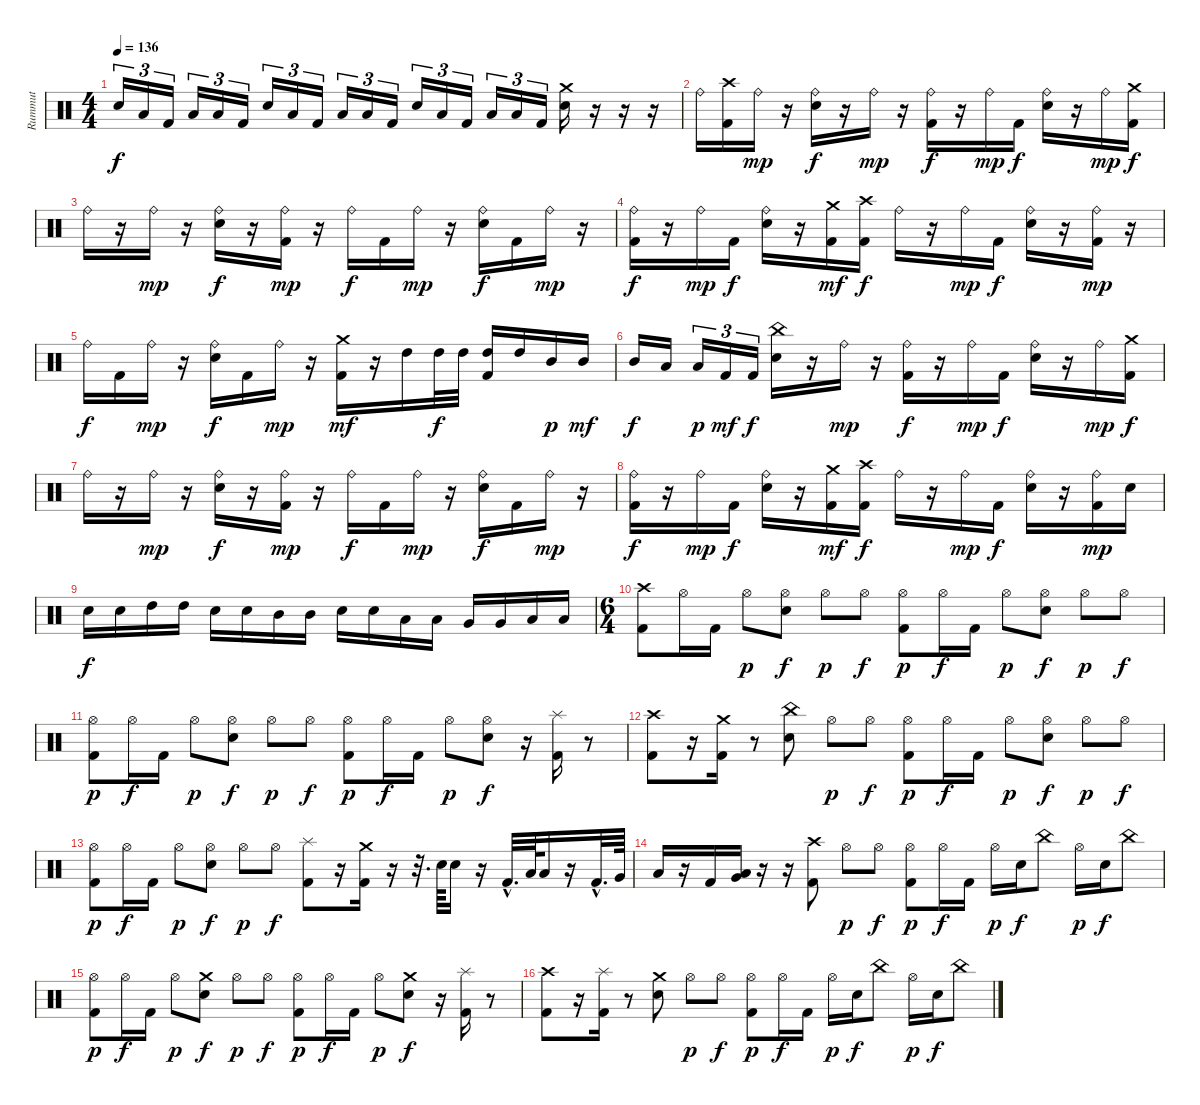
\track ("Rummut" "Rummut") {instrument percussion}
\staff {score}
\articulation defaults
\ts (4 4)
\tempo 136
\clef neutral
\ks c "Electric Snare (hit)".16{tu (3 2) dy f} "Low Floor Tom (hit)".16{tu (3 2)} "Kick (hit) 2".16{tu (3 2)} "Low Tom (hit)".16{tu (3 2)} "Low Floor Tom (hit)".16{tu (3 2)} "Kick (hit) 2".16{tu (3 2)} "Electric Snare (hit)".16{tu (3 2)} "Low Floor Tom (hit)".16{tu (3 2)} "Kick (hit) 2".16{tu (3 2)} "Low Tom (hit)".16{tu (3 2)} "Low Floor Tom (hit)".16{tu (3 2)} "Kick (hit) 2".16{tu (3 2)} "Electric Snare (hit)".16{tu (3 2)} "Low Floor Tom (hit)".16{tu (3 2)} "Kick (hit) 2".16{tu (3 2)} "Low Tom (hit)".16{tu (3 2)} "Low Floor Tom (hit)".16{tu (3 2)} "Kick (hit) 2".16{tu (3 2)}
("Crash medium (hit)" "Electric Snare (hit)").16 r.16 r.16 r.16 |
"Ride (bell)".16 ("Crash high (hit)" "Kick (hit) 2").16 "Ride (bell)".16{dy mp} r.16 ("Ride (bell)" "Electric Snare (hit)").16{dy f} r.16 "Ride (bell)".16{dy mp} r.16 ("Ride (bell)" "Kick (hit) 2").16{dy f} r.16 "Ride (bell)".16{dy mp} "Kick (hit) 2".16{dy f} ("Ride (bell)" "Electric Snare (hit)").16 r.16 "Ride (bell)".16{dy mp} ("Crash medium (hit)" "Kick (hit) 2").16{dy f} |
"Ride (bell)".16 r.16 "Ride (bell)".16{dy mp} r.16 ("Ride (bell)" "Electric Snare (hit)").16{dy f} r.16 ("Ride (bell)" "Kick (hit) 2").16{dy mp} r.16 "Ride (bell)".16{dy f} "Kick (hit) 2".16 "Ride (bell)".16{dy mp} r.16 ("Ride (bell)" "Electric Snare (hit)").16{dy f} "Kick (hit) 2".16 "Ride (bell)".16{dy mp} r.16 |
("Ride (bell)" "Kick (hit) 2").16{dy f} r.16 "Ride (bell)".16{dy mp} "Kick (hit) 2".16{dy f} ("Ride (bell)" "Electric Snare (hit)").16 r.16 ("Crash medium (hit)" "Kick (hit) 2").16{dy mf} ("Crash high (hit)" "Kick (hit) 2").16{dy f} "Ride (bell)".16 r.16 "Ride (bell)".16{dy mp} "Kick (hit) 2".16{dy f} ("Ride (bell)" "Electric Snare (hit)").16 r.16 ("Ride (bell)" "Kick (hit) 2").16{dy mp} r.16 |
"Ride (bell)".16{dy f} "Kick (hit) 2".16 "Ride (bell)".16{dy mp} r.16 ("Ride (bell)" "Electric Snare (hit)").16{dy f} "Kick (hit) 2".16 "Ride (bell)".16{dy mp} r.16 ("Crash medium (hit)" "Kick (hit) 2").16{dy mf} r.16 "High Tom (hit)".16 "High Tom (hit)".32{dy f} "High Tom (hit)".32 ("High Tom (hit)" "Kick (hit) 2").16 "High Tom (hit)".16 "Mid Tom (hit)".16{dy p} "Mid Tom (hit)".16{dy mf} |
"Mid Tom (hit)".16{dy f} "Low Tom (hit)".16 "Low Tom (hit)".16{tu (3 2) dy p} "Kick (hit) 2".16{tu (3 2) dy mf} "Kick (hit) 2".16{tu (3 2) dy f} ("China (hit)" "Electric Snare (hit)").16 r.16 "Ride (bell)".16{dy mp} r.16 ("Ride (bell)" "Kick (hit) 2").16{dy f} r.16 "Ride (bell)".16{dy mp} "Kick (hit) 2".16{dy f} ("Ride (bell)" "Electric Snare (hit)").16 r.16 "Ride (bell)".16{dy mp} ("Crash medium (hit)" "Kick (hit) 2").16{dy f} |
"Ride (bell)".16 r.16 "Ride (bell)".16{dy mp} r.16 ("Ride (bell)" "Electric Snare (hit)").16{dy f} r.16 ("Ride (bell)" "Kick (hit) 2").16{dy mp} r.16 "Ride (bell)".16{dy f} "Kick (hit) 2".16 "Ride (bell)".16{dy mp} r.16 ("Ride (bell)" "Electric Snare (hit)").16{dy f} "Kick (hit) 2".16 "Ride (bell)".16{dy mp} r.16 |
("Ride (bell)" "Kick (hit) 2").16{dy f} r.16 "Ride (bell)".16{dy mp} "Kick (hit) 2".16{dy f} ("Ride (bell)" "Electric Snare (hit)").16 r.16 ("Crash medium (hit)" "Kick (hit) 2").16{dy mf} ("Crash high (hit)" "Kick (hit) 2").16{dy f} "Ride (bell)".16 r.16 "Ride (bell)".16{dy mp} "Kick (hit) 2".16{dy f} ("Ride (bell)" "Electric Snare (hit)").16 r.16 ("Ride (bell)" "Kick (hit) 2").16{dy mp} "Electric Snare (hit)".16 |
"Electric Snare (hit)".16{dy f} "Electric Snare (hit)".16 "High Tom (hit)".16 "High Tom (hit)".16 "Electric Snare (hit)".16 "Electric Snare (hit)".16 "Mid Tom (hit)".16 "Mid Tom (hit)".16 "Electric Snare (hit)".16 "Electric Snare (hit)".16 "Low Tom (hit)".16 "Low Tom (hit)".16 "Very Low Tom (hit)".16 "Very Low Tom (hit)".16 "Low Floor Tom (hit)".16 "Low Floor Tom (hit)".16 |
\ts (6 4)
("Crash high (hit)" "Kick (hit) 2").8 "Hi-Hat (open)".16 "Kick (hit) 2".16 "Hi-Hat (open)".8{dy p} ("Hi-Hat (open)" "Electric Snare (hit)").8{dy f} "Hi-Hat (open)".8{dy p} "Hi-Hat (open)".8{dy f} ("Hi-Hat (open)" "Kick (hit) 2").8{dy p} "Hi-Hat (open)".16{dy f} "Kick (hit) 2".16 "Hi-Hat (open)".8{dy p} ("Hi-Hat (open)" "Electric Snare (hit)").8{dy f} "Hi-Hat (open)".8{dy p} "Hi-Hat (open)".8{dy f} |
("Hi-Hat (open)" "Kick (hit) 2").8{dy p} "Hi-Hat (open)".16{dy f} "Kick (hit) 2".16 "Hi-Hat (open)".8{dy p} ("Hi-Hat (open)" "Electric Snare (hit)").8{dy f} "Hi-Hat (open)".8{dy p} "Hi-Hat (open)".8{dy f} ("Hi-Hat (open)" "Kick (hit) 2").8{dy p} "Hi-Hat (open)".16{dy f} "Kick (hit) 2".16 "Hi-Hat (open)".8{dy p} ("Hi-Hat (open)" "Electric Snare (hit)").8{dy f} r.16 ("Splash (hit)" "Kick (hit) 2").16 r.8 |
("Crash high (hit)" "Kick (hit) 2").8 r.16 ("Crash medium (hit)" "Kick (hit) 2").16 r.8 ("China (hit)" "Electric Snare (hit)").8 "Hi-Hat (open)".8{dy p} "Hi-Hat (open)".8{dy f} ("Hi-Hat (open)" "Kick (hit) 2").8{dy p} "Hi-Hat (open)".16{dy f} "Kick (hit) 2".16 "Hi-Hat (open)".8{dy p} ("Hi-Hat (open)" "Electric Snare (hit)").8{dy f} "Hi-Hat (open)".8{dy p} "Hi-Hat (open)".8{dy f} |
("Hi-Hat (open)" "Kick (hit) 2").8{dy p} "Hi-Hat (open)".16{dy f} "Kick (hit) 2".16 "Hi-Hat (open)".8{dy p} ("Hi-Hat (open)" "Electric Snare (hit)").8{dy f} "Hi-Hat (open)".8{dy p} "Hi-Hat (open)".8{dy f} ("Splash (hit)" "Kick (hit) 2").8 r.16 ("Crash medium (hit)" "Kick (hit) 2").16 r.16 r.32{d} "Snare (hit) 2".64 "Electric Snare (hit)".16 r.16 "Kick (hit) 2"{hac}.32{d} "Low Tom (hit)".64 "Low Floor Tom (hit)".16 r.16 "Kick (hit) 2"{hac}.32{d} "Very Low Tom (hit)".64 |
"Low Floor Tom (hit)".16 r.16 "Kick (hit) 2".16 ("Very Low Tom (hit)" "Low Floor Tom (hit)").16 r.16 r.16 ("Crash high (hit)" "Kick (hit) 2").8 "Hi-Hat (open)".8{dy p} "Hi-Hat (open)".8{dy f} ("Hi-Hat (open)" "Kick (hit) 2").8{dy p} "Hi-Hat (open)".16{dy f} "Kick (hit) 2".16 "Hi-Hat (open)".16{dy p} "Electric Snare (hit)".16{dy f} "China (hit)".8 "Hi-Hat (open)".16{dy p} "Electric Snare (hit)".16{dy f} "China (hit)".8 |
("Hi-Hat (open)" "Kick (hit) 2").8{dy p} "Hi-Hat (open)".16{dy f} "Kick (hit) 2".16 "Hi-Hat (open)".8{dy p} ("Crash medium (hit)" "Electric Snare (hit)").8{dy f} "Hi-Hat (open)".8{dy p} "Hi-Hat (open)".8{dy f} ("Hi-Hat (open)" "Kick (hit) 2").8{dy p} "Hi-Hat (open)".16{dy f} "Kick (hit) 2".16 "Hi-Hat (open)".8{dy p} ("Crash medium (hit)" "Electric Snare (hit)").8{dy f} r.16 ("Splash (hit)" "Kick (hit) 2").16 r.8 |
("Crash high (hit)" "Kick (hit) 2").8 r.16 ("Splash (hit)" "Kick (hit) 2").16 r.8 ("Crash medium (hit)" "Electric Snare (hit)").8 "Hi-Hat (open)".8{dy p} "Hi-Hat (open)".8{dy f} ("Hi-Hat (open)" "Kick (hit) 2").8{dy p} "Hi-Hat (open)".16{dy f} "Kick (hit) 2".16 "Hi-Hat (open)".16{dy p} "Electric Snare (hit)".16{dy f} "China (hit)".8 "Hi-Hat (open)".16{dy p} "Electric Snare (hit)".16{dy f} "China (hit)".8
